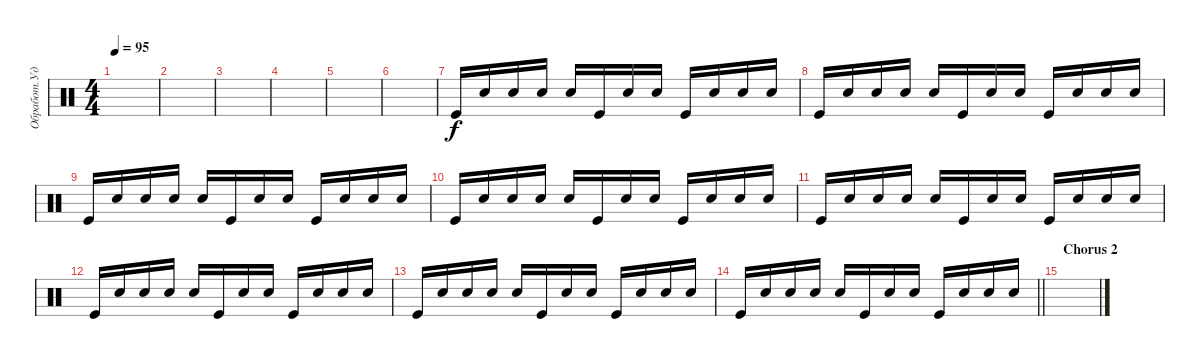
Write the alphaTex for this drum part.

\track ("Обработ.Ударные" "Обработ.Уд") {instrument percussion}
\staff {score}
\articulation defaults
\ts (4 4)
\tempo 95
\clef neutral
\ks c
|
|
|
|
|
|
"Kick (hit)".16{volume 7} "Snare (hit)".16 "Snare (hit)".16 "Electric Snare (hit)".16 "Snare (hit)".16 "Kick (hit)".16 "Snare (hit)".16 "Snare (hit)".16 "Kick (hit)".16 "Snare (hit)".16 "Snare (hit)".16 "Electric Snare (hit)".16 |
"Kick (hit)".16 "Snare (hit)".16 "Snare (hit)".16 "Electric Snare (hit)".16 "Snare (hit)".16 "Kick (hit)".16 "Snare (hit)".16 "Snare (hit)".16 "Kick (hit)".16 "Snare (hit)".16 "Snare (hit)".16 "Electric Snare (hit)".16 |
"Kick (hit)".16 "Snare (hit)".16 "Snare (hit)".16 "Electric Snare (hit)".16 "Snare (hit)".16 "Kick (hit)".16 "Snare (hit)".16 "Snare (hit)".16 "Kick (hit)".16 "Snare (hit)".16 "Snare (hit)".16 "Electric Snare (hit)".16 |
"Kick (hit)".16 "Snare (hit)".16 "Snare (hit)".16 "Electric Snare (hit)".16 "Snare (hit)".16 "Kick (hit)".16 "Snare (hit)".16 "Snare (hit)".16 "Kick (hit)".16 "Snare (hit)".16 "Snare (hit)".16 "Electric Snare (hit)".16 |
"Kick (hit)".16 "Snare (hit)".16 "Snare (hit)".16 "Electric Snare (hit)".16 "Snare (hit)".16 "Kick (hit)".16 "Snare (hit)".16 "Snare (hit)".16 "Kick (hit)".16 "Snare (hit)".16 "Snare (hit)".16 "Electric Snare (hit)".16 |
"Kick (hit)".16 "Snare (hit)".16 "Snare (hit)".16 "Electric Snare (hit)".16 "Snare (hit)".16 "Kick (hit)".16 "Snare (hit)".16 "Snare (hit)".16 "Kick (hit)".16 "Snare (hit)".16 "Snare (hit)".16 "Electric Snare (hit)".16 |
"Kick (hit)".16 "Snare (hit)".16 "Snare (hit)".16 "Electric Snare (hit)".16 "Snare (hit)".16 "Kick (hit)".16 "Snare (hit)".16 "Snare (hit)".16 "Kick (hit)".16 "Snare (hit)".16 "Snare (hit)".16 "Electric Snare (hit)".16 |
\barLineRight lightlight "Kick (hit)".16 "Snare (hit)".16 "Snare (hit)".16 "Electric Snare (hit)".16 "Snare (hit)".16 "Kick (hit)".16 "Snare (hit)".16 "Snare (hit)".16 "Kick (hit)".16 "Snare (hit)".16 "Snare (hit)".16 "Electric Snare (hit)".16
|
\section ("" "Chorus 2")
